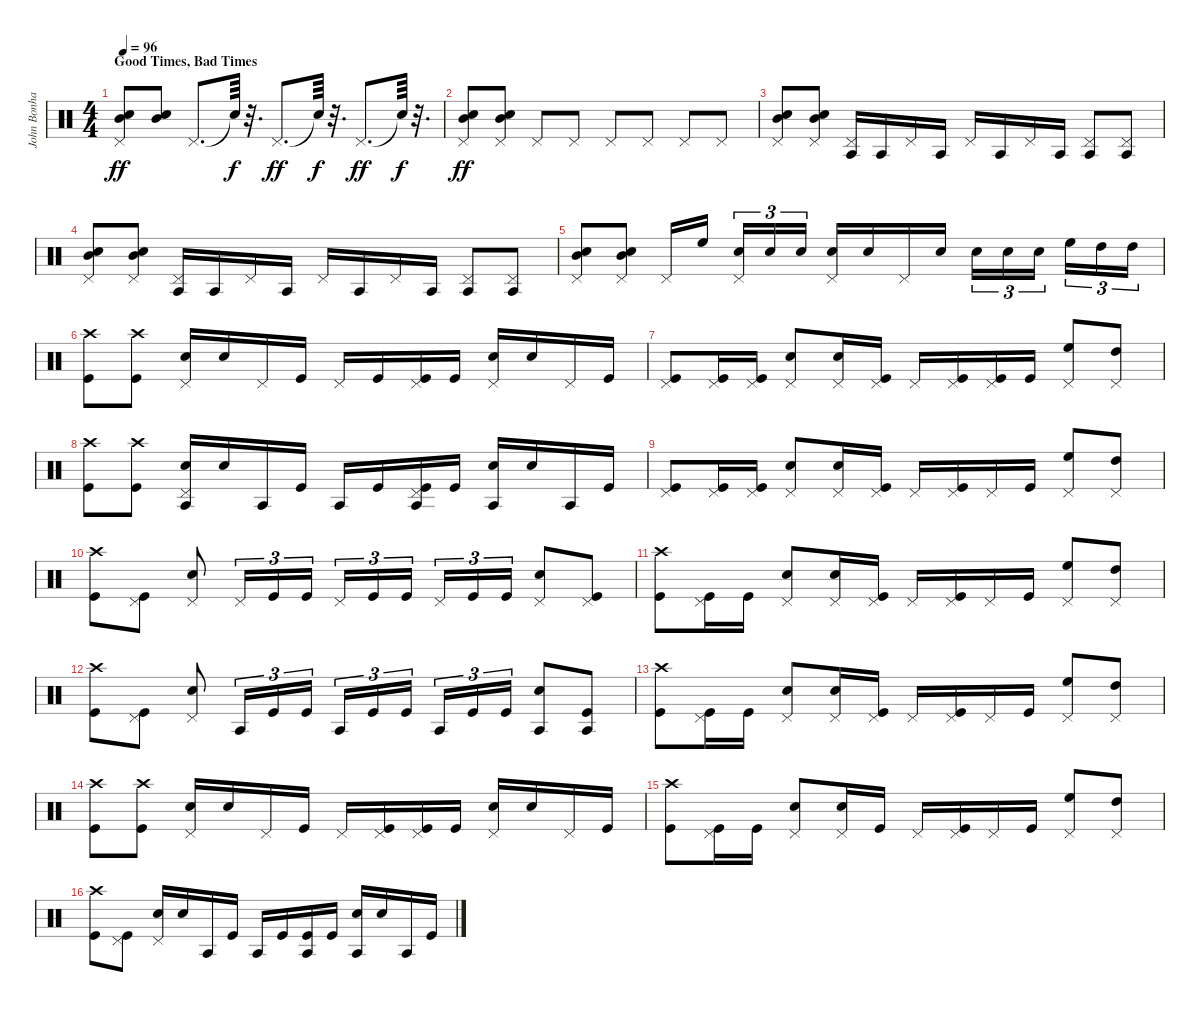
\track ("John Bonham - Drums" "John Bonha") {instrument percussion}
\staff {score}
\articulation defaults
\ts (4 4)
\section ("" "Good Times, Bad Times")
\tempo 96
\clef neutral
\ks c
("Pedal Hi-Hat (hit)" "Snare (hit) 2" "Mid Tom (hit)").8{dy ff} ("Snare (hit) 2" "Mid Tom (hit)").8 "Pedal Hi-Hat (hit)".8{d} "Snare (hit)"{t}.64{dy f} r.32{d} "Pedal Hi-Hat (hit)".8{d dy ff} "Snare (hit)"{t}.64{dy f} r.32{d} "Pedal Hi-Hat (hit)".8{d dy ff} "Snare (hit)"{t}.64{dy f} r.32{d} |
("Pedal Hi-Hat (hit)" "Snare (hit) 2" "Mid Tom (hit)").8{dy ff} ("Pedal Hi-Hat (hit)" "Snare (hit) 2" "Mid Tom (hit)").8 "Pedal Hi-Hat (hit)".8 "Pedal Hi-Hat (hit)".8 "Pedal Hi-Hat (hit)".8 "Pedal Hi-Hat (hit)".8 "Pedal Hi-Hat (hit)".8 "Pedal Hi-Hat (hit)".8 |
("Pedal Hi-Hat (hit)" "Snare (hit) 2" "Mid Tom (hit)").8 ("Pedal Hi-Hat (hit)" "Snare (hit) 2" "Mid Tom (hit)").8 ("Pedal Hi-Hat (hit)" "Agogo tow (hit)").16 "Agogo tow (hit)".16 "Pedal Hi-Hat (hit)".16 "Agogo tow (hit)".16 "Pedal Hi-Hat (hit)".16 "Agogo tow (hit)".16 "Pedal Hi-Hat (hit)".16 "Agogo tow (hit)".16 ("Pedal Hi-Hat (hit)" "Agogo tow (hit)").8 ("Pedal Hi-Hat (hit)" "Agogo tow (hit)").8 |
("Pedal Hi-Hat (hit)" "Snare (hit) 2" "Mid Tom (hit)").8 ("Pedal Hi-Hat (hit)" "Snare (hit) 2" "Mid Tom (hit)").8 ("Pedal Hi-Hat (hit)" "Agogo tow (hit)").16 "Agogo tow (hit)".16 "Pedal Hi-Hat (hit)".16 "Agogo tow (hit)".16 "Pedal Hi-Hat (hit)".16 "Agogo tow (hit)".16 "Pedal Hi-Hat (hit)".16 "Agogo tow (hit)".16 ("Pedal Hi-Hat (hit)" "Agogo tow (hit)").8 ("Pedal Hi-Hat (hit)" "Agogo tow (hit)").8 |
("Pedal Hi-Hat (hit)" "Snare (hit) 2" "Mid Tom (hit)").8 ("Pedal Hi-Hat (hit)" "Snare (hit) 2" "Mid Tom (hit)").8 "Pedal Hi-Hat (hit)".16 "High Floor Tom (hit)".16{beam splitsecondary} ("Pedal Hi-Hat (hit)" "Snare (hit) 2").16{tu (3 2)} "Snare (hit) 2".16{tu (3 2)} "Snare (hit) 2".16{tu (3 2)} ("Pedal Hi-Hat (hit)" "Snare (hit) 2").16 "Snare (hit) 2".16 "Pedal Hi-Hat (hit)".16 "Snare (hit) 2".16 "Snare (hit) 2".16{tu (3 2)} "Snare (hit) 2".16{tu (3 2)} "Snare (hit) 2".16{tu (3 2) beam splitsecondary} "High Floor Tom (hit)".16{tu (3 2)} "High Tom (hit)".16{tu (3 2)} "High Tom (hit)".16{tu (3 2)} |
("Crash high (hit)" "Kick (hit)").8 ("Crash high (hit)" "Kick (hit)").8 ("Pedal Hi-Hat (hit)" "Snare (hit) 2").16 "Snare (hit) 2".16 "Pedal Hi-Hat (hit)".16 "Kick (hit)".16 "Pedal Hi-Hat (hit)".16 "Kick (hit)".16 ("Pedal Hi-Hat (hit)" "Kick (hit)").16 "Kick (hit)".16 ("Pedal Hi-Hat (hit)" "Snare (hit) 2").16 "Snare (hit) 2".16 "Pedal Hi-Hat (hit)".16 "Kick (hit)".16 |
("Pedal Hi-Hat (hit)" "Kick (hit)").8 ("Pedal Hi-Hat (hit)" "Kick (hit)").16 ("Pedal Hi-Hat (hit)" "Kick (hit)").16 ("Pedal Hi-Hat (hit)" "Snare (hit) 2").8 ("Pedal Hi-Hat (hit)" "Snare (hit) 2").16 ("Pedal Hi-Hat (hit)" "Kick (hit)").16 "Pedal Hi-Hat (hit)".16 ("Pedal Hi-Hat (hit)" "Kick (hit)").16 ("Pedal Hi-Hat (hit)" "Kick (hit)").16 "Kick (hit)".16 ("Pedal Hi-Hat (hit)" "High Floor Tom (hit)").8 ("Pedal Hi-Hat (hit)" "High Tom (hit)").8 |
("Crash high (hit)" "Kick (hit)").8 ("Crash high (hit)" "Kick (hit)").8 ("Pedal Hi-Hat (hit)" "Agogo tow (hit)" "Snare (hit) 2").16 "Snare (hit) 2".16 "Agogo tow (hit)".16 "Kick (hit)".16 "Agogo tow (hit)".16 "Kick (hit)".16 ("Pedal Hi-Hat (hit)" "Agogo tow (hit)" "Kick (hit)").16 "Kick (hit)".16 ("Agogo tow (hit)" "Snare (hit) 2").16 "Snare (hit) 2".16 "Agogo tow (hit)".16 "Kick (hit)".16 |
("Pedal Hi-Hat (hit)" "Kick (hit)").8 ("Pedal Hi-Hat (hit)" "Kick (hit)").16 ("Pedal Hi-Hat (hit)" "Kick (hit)").16 ("Pedal Hi-Hat (hit)" "Snare (hit) 2").8 ("Pedal Hi-Hat (hit)" "Snare (hit) 2").16 ("Pedal Hi-Hat (hit)" "Kick (hit)").16 "Pedal Hi-Hat (hit)".16 ("Pedal Hi-Hat (hit)" "Kick (hit)").16 "Pedal Hi-Hat (hit)".16 "Kick (hit)".16 ("Pedal Hi-Hat (hit)" "High Floor Tom (hit)").8 ("Pedal Hi-Hat (hit)" "High Tom (hit)").8 |
("Crash high (hit)" "Kick (hit)").8 ("Pedal Hi-Hat (hit)" "Kick (hit)").8 ("Pedal Hi-Hat (hit)" "Snare (hit) 2").8 "Pedal Hi-Hat (hit)".16{tu (3 2)} "Kick (hit)".16{tu (3 2)} "Kick (hit)".16{tu (3 2)} "Pedal Hi-Hat (hit)".16{tu (3 2)} "Kick (hit)".16{tu (3 2)} "Kick (hit)".16{tu (3 2) beam splitsecondary} "Pedal Hi-Hat (hit)".16{tu (3 2)} "Kick (hit)".16{tu (3 2)} "Kick (hit)".16{tu (3 2)} ("Pedal Hi-Hat (hit)" "Snare (hit) 2").8 ("Pedal Hi-Hat (hit)" "Kick (hit)").8 |
("Crash high (hit)" "Kick (hit)").8 ("Pedal Hi-Hat (hit)" "Kick (hit)").16 "Kick (hit)".16 ("Pedal Hi-Hat (hit)" "Snare (hit) 2").8 ("Pedal Hi-Hat (hit)" "Snare (hit) 2").16 ("Pedal Hi-Hat (hit)" "Kick (hit)").16 "Pedal Hi-Hat (hit)".16 ("Pedal Hi-Hat (hit)" "Kick (hit)").16 "Pedal Hi-Hat (hit)".16 "Kick (hit)".16 ("Pedal Hi-Hat (hit)" "High Floor Tom (hit)").8 ("Pedal Hi-Hat (hit)" "High Tom (hit)").8 |
("Crash high (hit)" "Kick (hit)").8 ("Pedal Hi-Hat (hit)" "Kick (hit)").8 ("Pedal Hi-Hat (hit)" "Snare (hit) 2").8 "Agogo tow (hit)".16{tu (3 2)} "Kick (hit)".16{tu (3 2)} "Kick (hit)".16{tu (3 2)} "Agogo tow (hit)".16{tu (3 2)} "Kick (hit)".16{tu (3 2)} "Kick (hit)".16{tu (3 2) beam splitsecondary} "Agogo tow (hit)".16{tu (3 2)} "Kick (hit)".16{tu (3 2)} "Kick (hit)".16{tu (3 2)} ("Agogo tow (hit)" "Snare (hit) 2").8 ("Agogo tow (hit)" "Kick (hit)").8 |
("Crash high (hit)" "Kick (hit)").8 ("Pedal Hi-Hat (hit)" "Kick (hit)").16 "Kick (hit)".16 ("Pedal Hi-Hat (hit)" "Snare (hit) 2").8 ("Pedal Hi-Hat (hit)" "Snare (hit) 2").16 ("Pedal Hi-Hat (hit)" "Kick (hit)").16 "Pedal Hi-Hat (hit)".16 ("Pedal Hi-Hat (hit)" "Kick (hit)").16 "Pedal Hi-Hat (hit)".16 "Kick (hit)".16 ("Pedal Hi-Hat (hit)" "High Floor Tom (hit)").8 ("Pedal Hi-Hat (hit)" "High Tom (hit)").8 |
("Crash high (hit)" "Kick (hit)").8 ("Crash high (hit)" "Kick (hit)").8 ("Pedal Hi-Hat (hit)" "Snare (hit) 2").16 "Snare (hit) 2".16 "Pedal Hi-Hat (hit)".16 "Kick (hit)".16 "Pedal Hi-Hat (hit)".16 ("Pedal Hi-Hat (hit)" "Kick (hit)").16 ("Pedal Hi-Hat (hit)" "Kick (hit)").16 "Kick (hit)".16 ("Pedal Hi-Hat (hit)" "Snare (hit) 2").16 "Snare (hit) 2".16 "Pedal Hi-Hat (hit)".16 "Kick (hit)".16 |
("Crash high (hit)" "Kick (hit)").8 ("Pedal Hi-Hat (hit)" "Kick (hit)").16 "Kick (hit)".16 ("Pedal Hi-Hat (hit)" "Snare (hit) 2").8 ("Pedal Hi-Hat (hit)" "Snare (hit) 2").16 "Kick (hit)".16 "Pedal Hi-Hat (hit)".16 ("Pedal Hi-Hat (hit)" "Kick (hit)").16 "Pedal Hi-Hat (hit)".16 "Kick (hit)".16 ("Pedal Hi-Hat (hit)" "High Floor Tom (hit)").8 ("Pedal Hi-Hat (hit)" "High Tom (hit)").8 |
("Crash high (hit)" "Kick (hit)").8 ("Pedal Hi-Hat (hit)" "Kick (hit)").8 ("Pedal Hi-Hat (hit)" "Snare (hit) 2").16 "Snare (hit) 2".16 "Agogo tow (hit)".16 "Kick (hit)".16 "Agogo tow (hit)".16 "Kick (hit)".16 ("Agogo tow (hit)" "Kick (hit)").16 "Kick (hit)".16 ("Agogo tow (hit)" "Snare (hit) 2").16 "Snare (hit) 2".16 "Agogo tow (hit)".16 "Kick (hit)".16
